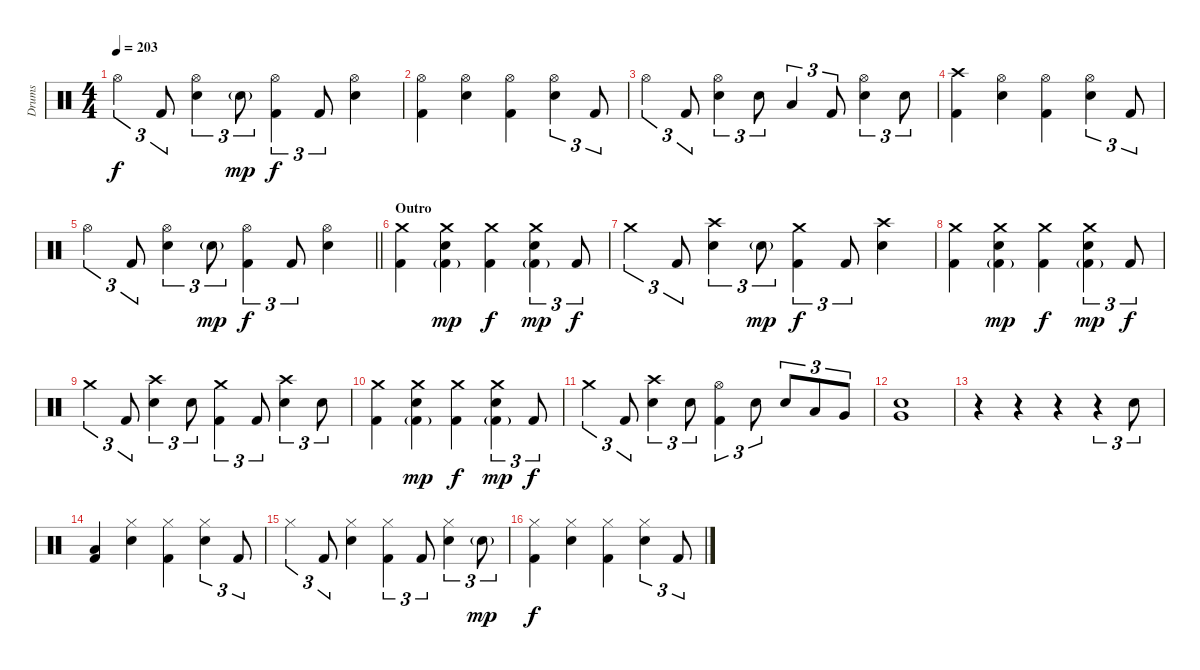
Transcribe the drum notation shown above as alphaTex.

\track ("Drums" "Drums") {instrument percussion}
\staff {score}
\articulation defaults
\ts (4 4)
\tempo 203
\clef neutral
\ks c "Hi-Hat (open)".4{tu (3 2) dy f} "Kick (hit) 2".8{tu (3 2)}
("Hi-Hat (open)" "Electric Snare (hit)").4{tu (3 2)} "Electric Snare (hit)"{g}.8{tu (3 2) dy mp} ("Hi-Hat (open)" "Kick (hit) 2").4{tu (3 2) dy f} "Kick (hit) 2".8{tu (3 2)} ("Hi-Hat (open)" "Electric Snare (hit)").4 |
("Hi-Hat (open)" "Kick (hit) 2").4 ("Hi-Hat (open)" "Electric Snare (hit)").4 ("Hi-Hat (open)" "Kick (hit) 2").4 ("Hi-Hat (open)" "Electric Snare (hit)").4{tu (3 2)} "Kick (hit) 2".8{tu (3 2)} |
"Hi-Hat (open)".4{tu (3 2)} "Kick (hit) 2".8{tu (3 2)} ("Hi-Hat (open)" "Electric Snare (hit)").4{tu (3 2)} "Electric Snare (hit)".8{tu (3 2)} "Low Tom (hit)".4{tu (3 2)} "Kick (hit) 2".8{tu (3 2)} ("Hi-Hat (open)" "Electric Snare (hit)").4{tu (3 2)} "Electric Snare (hit)".8{tu (3 2)} |
("Crash high (hit)" "Kick (hit) 2").4 ("Hi-Hat (open)" "Electric Snare (hit)").4 ("Hi-Hat (open)" "Kick (hit) 2").4 ("Hi-Hat (open)" "Electric Snare (hit)").4{tu (3 2)} "Kick (hit) 2".8{tu (3 2)} |
\barLineRight lightlight "Hi-Hat (open)".4{tu (3 2)} "Kick (hit) 2".8{tu (3 2)}
("Hi-Hat (open)" "Electric Snare (hit)").4{tu (3 2)} "Electric Snare (hit)"{g}.8{tu (3 2) dy mp} ("Hi-Hat (open)" "Kick (hit) 2").4{tu (3 2) dy f} "Kick (hit) 2".8{tu (3 2)} ("Hi-Hat (open)" "Electric Snare (hit)").4 |
\section ("" "Outro")
("Crash medium (hit)" "Kick (hit) 2").4 ("Crash medium (hit)" "Electric Snare (hit)" "Kick (hit) 2"{g}).4{dy mp} ("Crash medium (hit)" "Kick (hit) 2").4{dy f} ("Crash medium (hit)" "Electric Snare (hit)" "Kick (hit) 2"{g}).4{tu (3 2) dy mp} "Kick (hit) 2".8{tu (3 2) dy f} |
"Crash medium (hit)".4{tu (3 2)} "Kick (hit) 2".8{tu (3 2)} ("Crash high (hit)" "Electric Snare (hit)").4{tu (3 2)} "Electric Snare (hit)"{g}.8{tu (3 2) dy mp} ("Crash medium (hit)" "Kick (hit) 2").4{tu (3 2) dy f} "Kick (hit) 2".8{tu (3 2)} ("Crash high (hit)" "Electric Snare (hit)").4 |
("Crash medium (hit)" "Kick (hit) 2").4 ("Crash medium (hit)" "Electric Snare (hit)" "Kick (hit) 2"{g}).4{dy mp} ("Crash medium (hit)" "Kick (hit) 2").4{dy f} ("Crash medium (hit)" "Electric Snare (hit)" "Kick (hit) 2"{g}).4{tu (3 2) dy mp} "Kick (hit) 2".8{tu (3 2) dy f} |
"Crash medium (hit)".4{tu (3 2)} "Kick (hit) 2".8{tu (3 2)} ("Crash high (hit)" "Electric Snare (hit)").4{tu (3 2)} "Electric Snare (hit)".8{tu (3 2)} ("Crash medium (hit)" "Kick (hit) 2").4{tu (3 2)} "Kick (hit) 2".8{tu (3 2)} ("Crash high (hit)" "Electric Snare (hit)").4{tu (3 2)} "Electric Snare (hit)".8{tu (3 2)} |
("Crash medium (hit)" "Kick (hit) 2").4 ("Crash medium (hit)" "Electric Snare (hit)" "Kick (hit) 2"{g}).4{dy mp} ("Crash medium (hit)" "Kick (hit) 2").4{dy f} ("Crash medium (hit)" "Electric Snare (hit)" "Kick (hit) 2"{g}).4{tu (3 2) dy mp} "Kick (hit) 2".8{tu (3 2) dy f} |
"Crash medium (hit)".4{tu (3 2)} "Kick (hit) 2".8{tu (3 2)} ("Crash high (hit)" "Electric Snare (hit)").4{tu (3 2)} "Electric Snare (hit)".8{tu (3 2)} ("Hi-Hat (open)" "Kick (hit) 2").4{tu (3 2)} "Electric Snare (hit)".8{tu (3 2)} "Electric Snare (hit)".8{tu (3 2)} "Low Tom (hit)".8{tu (3 2)} "Very Low Tom (hit)".8{tu (3 2)} |
("Very Low Tom (hit)" "Electric Snare (hit)").1 |
r.4 r.4 r.4 r.4{tu (3 2)} "Electric Snare (hit)".8{tu (3 2)} |
("Low Floor Tom (hit)" "Kick (hit) 2").4 ("Hi-Hat (closed)" "Electric Snare (hit)").4 ("Hi-Hat (closed)" "Kick (hit) 2").4 ("Hi-Hat (closed)" "Electric Snare (hit)").4{tu (3 2)} "Kick (hit) 2".8{tu (3 2)} |
"Hi-Hat (closed)".4{tu (3 2)} "Kick (hit) 2".8{tu (3 2)} ("Hi-Hat (closed)" "Electric Snare (hit)").4 ("Hi-Hat (closed)" "Kick (hit) 2").4{tu (3 2)} "Kick (hit) 2".8{tu (3 2)} ("Hi-Hat (closed)" "Electric Snare (hit)").4{tu (3 2)} "Electric Snare (hit)"{g}.8{tu (3 2) dy mp} |
("Hi-Hat (closed)" "Kick (hit) 2").4{dy f} ("Hi-Hat (closed)" "Electric Snare (hit)").4 ("Hi-Hat (closed)" "Kick (hit) 2").4 ("Hi-Hat (closed)" "Electric Snare (hit)").4{tu (3 2)} "Kick (hit) 2".8{tu (3 2)}
